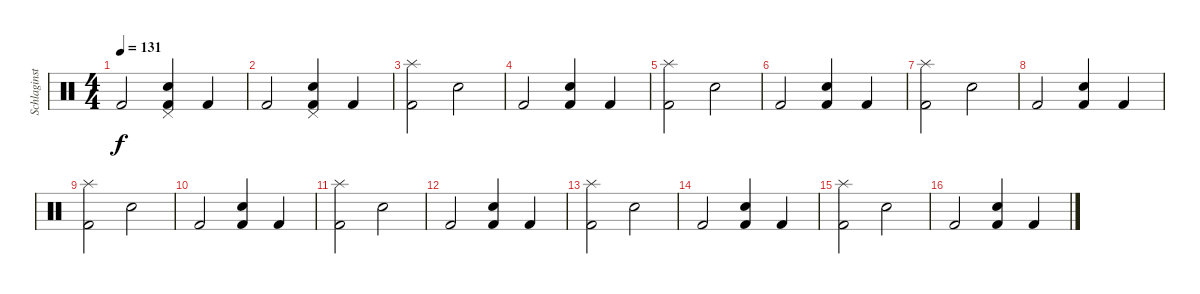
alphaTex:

\track ("Schlaginstrumente - Auswahl" "Schlaginst") {instrument percussion}
\staff {score}
\articulation defaults
\ts (4 4)
\tempo 131
\clef neutral
\ks c "Kick (hit) 2".2{dy f}
("Pedal Hi-Hat (hit)" "Kick (hit) 2" "Snare (hit) 2").4 "Kick (hit) 2".4 |
"Kick (hit) 2".2 ("Pedal Hi-Hat (hit)" "Kick (hit) 2" "Snare (hit) 2").4 "Kick (hit) 2".4 |
("Splash (hit)" "Kick (hit) 2").2 "Snare (hit) 2".2 |
"Kick (hit) 2".2 ("Kick (hit) 2" "Snare (hit) 2").4 "Kick (hit) 2".4 |
("Splash (hit)" "Kick (hit) 2").2 "Snare (hit) 2".2 |
"Kick (hit) 2".2 ("Kick (hit) 2" "Snare (hit) 2").4 "Kick (hit) 2".4 |
("Splash (hit)" "Kick (hit) 2").2 "Snare (hit) 2".2 |
"Kick (hit) 2".2 ("Kick (hit) 2" "Snare (hit) 2").4 "Kick (hit) 2".4 |
("Splash (hit)" "Kick (hit) 2").2 "Snare (hit) 2".2 |
"Kick (hit) 2".2 ("Kick (hit) 2" "Snare (hit) 2").4 "Kick (hit) 2".4 |
("Splash (hit)" "Kick (hit) 2").2 "Snare (hit) 2".2 |
"Kick (hit) 2".2 ("Kick (hit) 2" "Snare (hit) 2").4 "Kick (hit) 2".4 |
("Splash (hit)" "Kick (hit) 2").2 "Snare (hit) 2".2 |
"Kick (hit) 2".2 ("Kick (hit) 2" "Snare (hit) 2").4 "Kick (hit) 2".4 |
("Splash (hit)" "Kick (hit) 2").2 "Snare (hit) 2".2 |
"Kick (hit) 2".2 ("Kick (hit) 2" "Snare (hit) 2").4 "Kick (hit) 2".4
